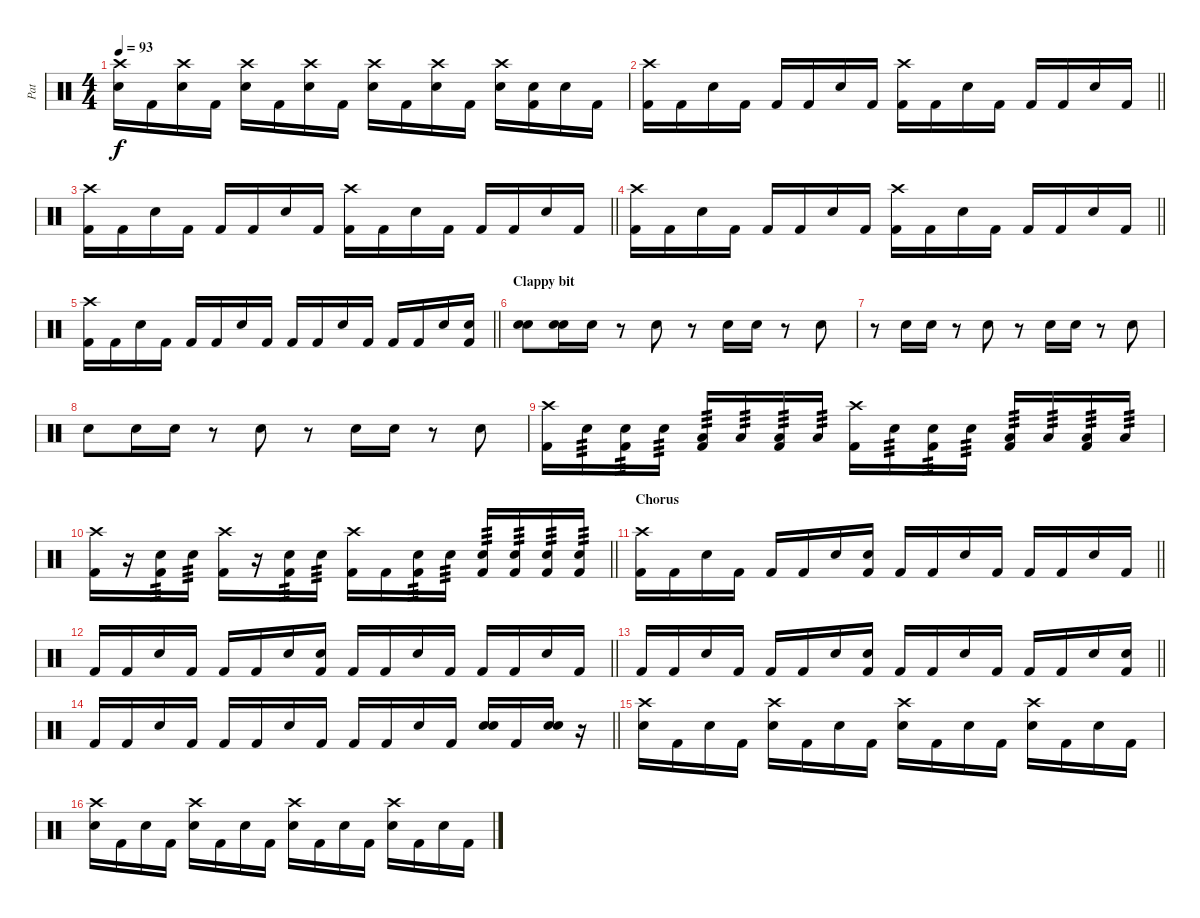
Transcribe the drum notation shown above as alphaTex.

\track ("Pat" "Pat") {instrument percussion}
\staff {score}
\articulation defaults
\ts (4 4)
\tempo 93
\clef neutral
\ks c
("Crash high (hit)" "Electric Snare (hit)").16{dy f} "Kick (hit) 2".16 ("Crash high (hit)" "Electric Snare (hit)").16 "Kick (hit) 2".16 ("Crash high (hit)" "Electric Snare (hit)").16 "Kick (hit) 2".16 ("Crash high (hit)" "Electric Snare (hit)").16 "Kick (hit) 2".16 ("Crash high (hit)" "Electric Snare (hit)").16 "Kick (hit) 2".16 ("Crash high (hit)" "Electric Snare (hit)").16 "Kick (hit) 2".16 ("Crash high (hit)" "Electric Snare (hit)").16 ("Electric Snare (hit)" "Kick (hit) 2").16 "Electric Snare (hit)".16 "Kick (hit) 2".16 |
\barLineRight lightlight
("Crash high (hit)" "Kick (hit) 2").16 "Kick (hit) 2".16 "Electric Snare (hit)".16 "Kick (hit) 2".16 "Kick (hit) 2".16 "Kick (hit) 2".16 "Electric Snare (hit)".16 "Kick (hit) 2".16 ("Crash high (hit)" "Kick (hit) 2").16 "Kick (hit) 2".16 "Electric Snare (hit)".16 "Kick (hit) 2".16 "Kick (hit) 2".16 "Kick (hit) 2".16 "Electric Snare (hit)".16 "Kick (hit) 2".16 |
\barLineRight lightlight
("Crash high (hit)" "Kick (hit) 2").16 "Kick (hit) 2".16 "Electric Snare (hit)".16 "Kick (hit) 2".16 "Kick (hit) 2".16 "Kick (hit) 2".16 "Electric Snare (hit)".16 "Kick (hit) 2".16 ("Crash high (hit)" "Kick (hit) 2").16 "Kick (hit) 2".16 "Electric Snare (hit)".16 "Kick (hit) 2".16 "Kick (hit) 2".16 "Kick (hit) 2".16 "Electric Snare (hit)".16 "Kick (hit) 2".16 |
\barLineRight lightlight
("Crash high (hit)" "Kick (hit) 2").16 "Kick (hit) 2".16 "Electric Snare (hit)".16 "Kick (hit) 2".16 "Kick (hit) 2".16 "Kick (hit) 2".16 "Electric Snare (hit)".16 "Kick (hit) 2".16 ("Crash high (hit)" "Kick (hit) 2").16 "Kick (hit) 2".16 "Electric Snare (hit)".16 "Kick (hit) 2".16 "Kick (hit) 2".16 "Kick (hit) 2".16 "Electric Snare (hit)".16 "Kick (hit) 2".16 |
\barLineRight lightlight
("Crash high (hit)" "Kick (hit) 2").16 "Kick (hit) 2".16 "Electric Snare (hit)".16 "Kick (hit) 2".16 "Kick (hit) 2".16 "Kick (hit) 2".16 "Electric Snare (hit)".16 "Kick (hit) 2".16 "Kick (hit) 2".16 "Kick (hit) 2".16 "Electric Snare (hit)".16 "Kick (hit) 2".16 "Kick (hit) 2".16 "Kick (hit) 2".16 "Electric Snare (hit)".16 ("Electric Snare (hit)" "Kick (hit) 2").16 |
\section ("" "Clappy bit")
("Electric Snare (hit)" "Hand Clap (hit)").8 ("Electric Snare (hit)" "Hand Clap (hit)").16 "Hand Clap (hit)".16 r.8 "Hand Clap (hit)".8 r.8 "Hand Clap (hit)".16 "Hand Clap (hit)".16 r.8 "Hand Clap (hit)".8 |
r.8 "Hand Clap (hit)".16 "Hand Clap (hit)".16 r.8 "Hand Clap (hit)".8 r.8 "Hand Clap (hit)".16 "Hand Clap (hit)".16 r.8 "Hand Clap (hit)".8 |
"Hand Clap (hit)".8 "Hand Clap (hit)".16 "Hand Clap (hit)".16 r.8 "Hand Clap (hit)".8 r.8 "Hand Clap (hit)".16 "Hand Clap (hit)".16 r.8 "Hand Clap (hit)".8 |
("Crash high (hit)" "Kick (hit) 2").16 "Electric Snare (hit)".16{tp 3} ("Electric Snare (hit)" "Kick (hit) 2").16{tp 3} "Electric Snare (hit)".16{tp 3} ("Low Tom (hit)" "Kick (hit) 2").16{tp 3} "Low Tom (hit)".16{tp 3} ("Low Floor Tom (hit)" "Kick (hit) 2").16{tp 3} "Low Floor Tom (hit)".16{tp 3} ("Crash high (hit)" "Kick (hit) 2").16 "Electric Snare (hit)".16{tp 3} ("Electric Snare (hit)" "Kick (hit) 2").16{tp 3} "Electric Snare (hit)".16{tp 3} ("Low Tom (hit)" "Kick (hit) 2").16{tp 3} "Low Tom (hit)".16{tp 3} ("Low Floor Tom (hit)" "Kick (hit) 2").16{tp 3} "Low Floor Tom (hit)".16{tp 3} |
\barLineRight lightlight
("Crash high (hit)" "Kick (hit) 2").16 r.16 ("Electric Snare (hit)" "Kick (hit) 2").16{tp 3} "Electric Snare (hit)".16{tp 3} ("Crash high (hit)" "Kick (hit) 2").16 r.16 ("Electric Snare (hit)" "Kick (hit) 2").16{tp 3} "Electric Snare (hit)".16{tp 3} ("Crash high (hit)" "Kick (hit) 2").16 "Kick (hit) 2".16 ("Electric Snare (hit)" "Kick (hit) 2").16{tp 3} "Electric Snare (hit)".16{tp 3} ("Electric Snare (hit)" "Kick (hit) 2").16{tp 3} ("Electric Snare (hit)" "Kick (hit) 2").16{tp 3} ("Electric Snare (hit)" "Kick (hit) 2").16{tp 3} ("Electric Snare (hit)" "Kick (hit) 2").16{tp 3} |
\section ("" "Chorus")
\barLineRight lightlight
("Crash high (hit)" "Kick (hit) 2").16 "Kick (hit) 2".16 "Electric Snare (hit)".16 "Kick (hit) 2".16 "Kick (hit) 2".16 "Kick (hit) 2".16 "Electric Snare (hit)".16 ("Electric Snare (hit)" "Kick (hit) 2").16 "Kick (hit) 2".16 "Kick (hit) 2".16 "Electric Snare (hit)".16 "Kick (hit) 2".16 "Kick (hit) 2".16 "Kick (hit) 2".16 "Electric Snare (hit)".16 "Kick (hit) 2".16 |
\barLineRight lightlight "Kick (hit) 2".16 "Kick (hit) 2".16 "Electric Snare (hit)".16 "Kick (hit) 2".16 "Kick (hit) 2".16 "Kick (hit) 2".16 "Electric Snare (hit)".16
("Electric Snare (hit)" "Kick (hit) 2").16 "Kick (hit) 2".16 "Kick (hit) 2".16 "Electric Snare (hit)".16 "Kick (hit) 2".16 "Kick (hit) 2".16 "Kick (hit) 2".16 "Electric Snare (hit)".16 "Kick (hit) 2".16 |
\barLineRight lightlight "Kick (hit) 2".16 "Kick (hit) 2".16 "Electric Snare (hit)".16 "Kick (hit) 2".16 "Kick (hit) 2".16 "Kick (hit) 2".16 "Electric Snare (hit)".16
("Electric Snare (hit)" "Kick (hit) 2").16 "Kick (hit) 2".16 "Kick (hit) 2".16 "Electric Snare (hit)".16 "Kick (hit) 2".16 "Kick (hit) 2".16 "Kick (hit) 2".16 "Electric Snare (hit)".16 ("Electric Snare (hit)" "Kick (hit) 2").16 |
\barLineRight lightlight "Kick (hit) 2".16 "Kick (hit) 2".16 "Electric Snare (hit)".16 "Kick (hit) 2".16 "Kick (hit) 2".16 "Kick (hit) 2".16 "Electric Snare (hit)".16 "Kick (hit) 2".16 "Kick (hit) 2".16 "Kick (hit) 2".16 "Electric Snare (hit)".16 "Kick (hit) 2".16
("Electric Snare (hit)" "Electric Snare (hit)").16 "Kick (hit) 2".16 ("Electric Snare (hit)" "Electric Snare (hit)").16 r.16 |
("Crash high (hit)" "Electric Snare (hit)").16 "Kick (hit) 2".16 "Electric Snare (hit)".16 "Kick (hit) 2".16 ("Crash high (hit)" "Electric Snare (hit)").16 "Kick (hit) 2".16 "Electric Snare (hit)".16 "Kick (hit) 2".16 ("Crash high (hit)" "Electric Snare (hit)").16 "Kick (hit) 2".16 "Electric Snare (hit)".16 "Kick (hit) 2".16 ("Crash high (hit)" "Electric Snare (hit)").16 "Kick (hit) 2".16 "Electric Snare (hit)".16 "Kick (hit) 2".16 |
("Crash high (hit)" "Electric Snare (hit)").16 "Kick (hit) 2".16 "Electric Snare (hit)".16 "Kick (hit) 2".16 ("Crash high (hit)" "Electric Snare (hit)").16 "Kick (hit) 2".16 "Electric Snare (hit)".16 "Kick (hit) 2".16 ("Crash high (hit)" "Electric Snare (hit)").16 "Kick (hit) 2".16 "Electric Snare (hit)".16 "Kick (hit) 2".16 ("Crash high (hit)" "Electric Snare (hit)").16 "Kick (hit) 2".16 "Electric Snare (hit)".16 "Kick (hit) 2".16
